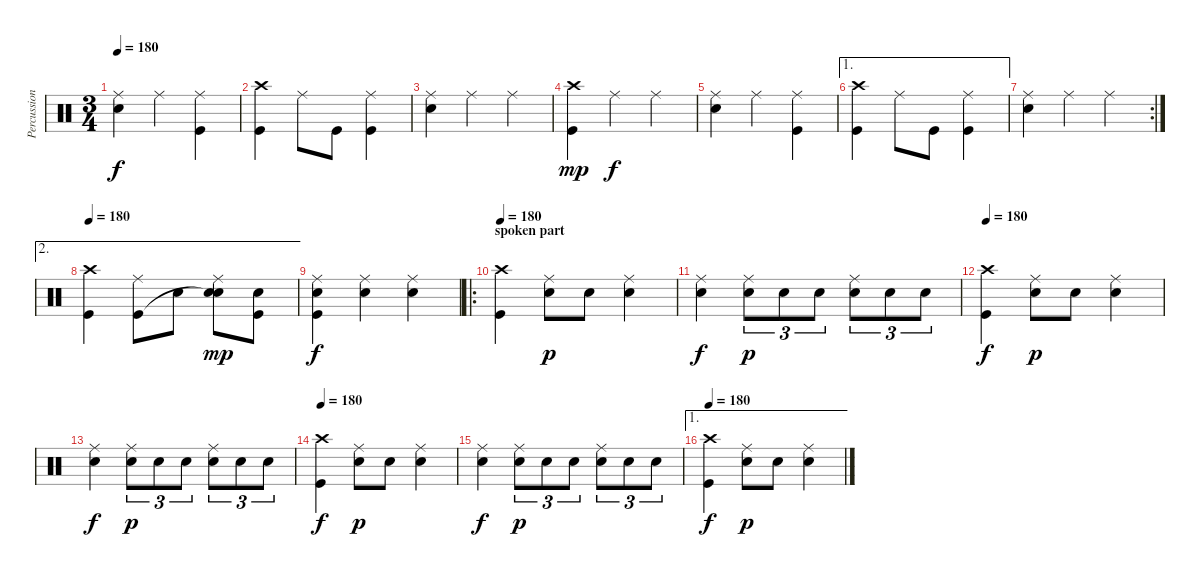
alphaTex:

\track ("Percussion" "Percussion") {instrument percussion}
\staff {score}
\articulation defaults
\ts (3 4)
\tempo 180
\clef neutral
\ks c
("Ride (middle)" "Electric Snare (hit)").4{dy f} "Ride (middle)".4 ("Ride (middle)" "Kick (hit)").4 |
("Crash high (hit)" "Kick (hit)").4 "Ride (middle)".8 "Kick (hit)".8 ("Ride (middle)" "Kick (hit)").4 |
("Ride (middle)" "Electric Snare (hit)").4 "Ride (middle)".4 "Ride (middle)".4 |
("Crash high (hit)" "Kick (hit)").4{dy mp} "Ride (middle)".4{dy f} "Ride (middle)".4 |
("Ride (middle)" "Electric Snare (hit)").4 "Ride (middle)".4 ("Ride (middle)" "Kick (hit)").4 |
\ae 1
("Crash high (hit)" "Kick (hit)").4 "Ride (middle)".8 "Kick (hit)".8 ("Ride (middle)" "Kick (hit)").4 |
\rc 2
("Ride (middle)" "Electric Snare (hit)").4 "Ride (middle)".4 "Ride (middle)".4 |
\ae 2
\tempo 180
("Crash high (hit)" "Kick (hit)").4 ("Ride (middle)" "Kick (hit)").8 "Electric Snare (hit)".8 ("Ride (middle)" "Snare (hit)"{t} "Snare (hit) 2").8{dy mp} ("Snare (hit) 2" "Kick (hit)").8 |
("Ride (middle)" "Electric Snare (hit)" "Kick (hit)").4{dy f} ("Ride (middle)" "Electric Snare (hit)").4 ("Ride (middle)" "Electric Snare (hit)").4 |
\ro
\section ("" "spoken part")
\tempo 180
("Crash high (hit)" "Kick (hit)").4 ("Ride (middle)" "Snare (hit) 2").8{dy p} "Snare (hit) 2".8 ("Ride (middle)" "Snare (hit) 2").4 |
("Ride (middle)" "Electric Snare (hit)").4{dy f} ("Ride (middle)" "Snare (hit) 2").8{tu (3 2) dy p} "Snare (hit) 2".8{tu (3 2)} "Snare (hit) 2".8{tu (3 2)} ("Ride (middle)" "Snare (hit) 2").8{tu (3 2)} "Snare (hit) 2".8{tu (3 2)} "Snare (hit) 2".8{tu (3 2)} |
\tempo 180
("Crash high (hit)" "Kick (hit)").4{dy f} ("Ride (middle)" "Snare (hit) 2").8{dy p} "Snare (hit) 2".8 ("Ride (middle)" "Snare (hit) 2").4 |
("Ride (middle)" "Electric Snare (hit)").4{dy f} ("Ride (middle)" "Snare (hit) 2").8{tu (3 2) dy p} "Snare (hit) 2".8{tu (3 2)} "Snare (hit) 2".8{tu (3 2)} ("Ride (middle)" "Snare (hit) 2").8{tu (3 2)} "Snare (hit) 2".8{tu (3 2)} "Snare (hit) 2".8{tu (3 2)} |
\tempo 180
("Crash high (hit)" "Kick (hit)").4{dy f} ("Ride (middle)" "Snare (hit) 2").8{dy p} "Snare (hit) 2".8 ("Ride (middle)" "Snare (hit) 2").4 |
("Ride (middle)" "Electric Snare (hit)").4{dy f} ("Ride (middle)" "Snare (hit) 2").8{tu (3 2) dy p} "Snare (hit) 2".8{tu (3 2)} "Snare (hit) 2".8{tu (3 2)} ("Ride (middle)" "Snare (hit) 2").8{tu (3 2)} "Snare (hit) 2".8{tu (3 2)} "Snare (hit) 2".8{tu (3 2)} |
\ae 1
\tempo 180
("Crash high (hit)" "Kick (hit)").4{dy f} ("Ride (middle)" "Snare (hit) 2").8{dy p} "Snare (hit) 2".8 ("Ride (middle)" "Snare (hit) 2").4
